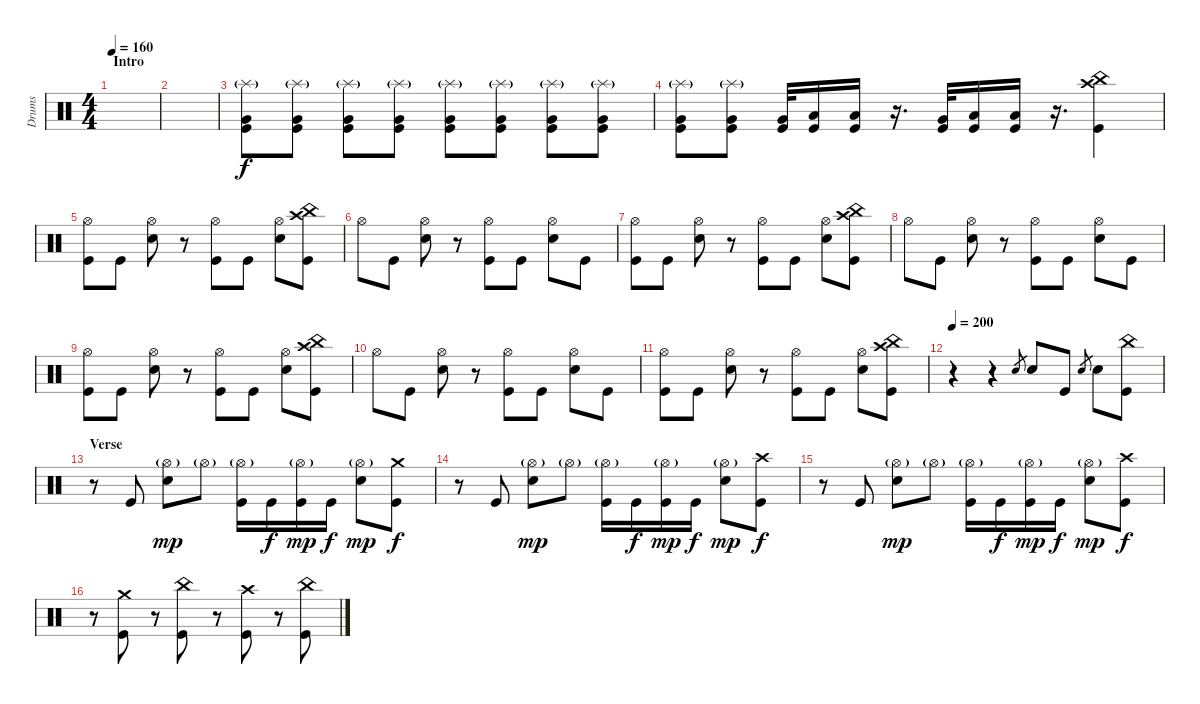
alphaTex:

\track ("Drums" "Drums") {instrument percussion}
\staff {score}
\articulation defaults
\ts (4 4)
\section ("" "Intro")
\tempo 160
\clef neutral
\ks c
|
|
("Splash (hit)"{g} "Very Low Tom (hit)" "Kick (hit)").8{volume 13} ("Splash (hit)"{g} "Very Low Tom (hit)" "Kick (hit)").8 ("Splash (hit)"{g} "Very Low Tom (hit)" "Kick (hit)").8 ("Splash (hit)"{g} "Very Low Tom (hit)" "Kick (hit)").8 ("Splash (hit)"{g} "Very Low Tom (hit)" "Kick (hit)").8 ("Splash (hit)"{g} "Very Low Tom (hit)" "Kick (hit)").8 ("Splash (hit)"{g} "Very Low Tom (hit)" "Kick (hit)").8 ("Splash (hit)"{g} "Very Low Tom (hit)" "Kick (hit)").8 |
("Splash (hit)"{g} "Very Low Tom (hit)" "Kick (hit)").8 ("Splash (hit)"{g} "Very Low Tom (hit)" "Kick (hit)").8 ("Very Low Tom (hit)" "Kick (hit)").32{dy f} ("Low Tom (hit)" "Kick (hit)").16 ("Low Floor Tom (hit)" "Kick (hit)").16 r.16{d} ("Very Low Tom (hit)" "Kick (hit)").32 ("Low Tom (hit)" "Kick (hit)").16 ("Low Floor Tom (hit)" "Kick (hit)").16 r.16{d} ("China (hit)" "Crash high (hit)" "Kick (hit)").4 |
("Hi-Hat (open)" "Kick (hit)").8 "Kick (hit)".8 ("Hi-Hat (open)" "Snare (hit) 2").8 r.8 ("Hi-Hat (open)" "Kick (hit)").8 "Kick (hit)".8 ("Hi-Hat (open)" "Snare (hit) 2").8 ("China (hit)" "Crash high (hit)" "Kick (hit)").8 |
"Hi-Hat (open)".8 "Kick (hit)".8 ("Hi-Hat (open)" "Snare (hit) 2").8 r.8 ("Hi-Hat (open)" "Kick (hit)").8 "Kick (hit)".8 ("Hi-Hat (open)" "Snare (hit) 2").8 "Kick (hit)".8 |
("Hi-Hat (open)" "Kick (hit)").8 "Kick (hit)".8 ("Hi-Hat (open)" "Snare (hit) 2").8 r.8 ("Hi-Hat (open)" "Kick (hit)").8 "Kick (hit)".8 ("Hi-Hat (open)" "Snare (hit) 2").8 ("China (hit)" "Crash high (hit)" "Kick (hit)").8 |
"Hi-Hat (open)".8 "Kick (hit)".8 ("Hi-Hat (open)" "Snare (hit) 2").8 r.8 ("Hi-Hat (open)" "Kick (hit)").8 "Kick (hit)".8 ("Hi-Hat (open)" "Snare (hit) 2").8 "Kick (hit)".8 |
("Hi-Hat (open)" "Kick (hit)").8 "Kick (hit)".8 ("Hi-Hat (open)" "Snare (hit) 2").8 r.8 ("Hi-Hat (open)" "Kick (hit)").8 "Kick (hit)".8 ("Hi-Hat (open)" "Snare (hit) 2").8 ("China (hit)" "Crash high (hit)" "Kick (hit)").8 |
"Hi-Hat (open)".8 "Kick (hit)".8 ("Hi-Hat (open)" "Snare (hit) 2").8 r.8 ("Hi-Hat (open)" "Kick (hit)").8 "Kick (hit)".8 ("Hi-Hat (open)" "Snare (hit) 2").8 "Kick (hit)".8 |
("Hi-Hat (open)" "Kick (hit)").8 "Kick (hit)".8 ("Hi-Hat (open)" "Snare (hit) 2").8 r.8 ("Hi-Hat (open)" "Kick (hit)").8 "Kick (hit)".8 ("Hi-Hat (open)" "Snare (hit) 2").8 ("China (hit)" "Crash high (hit)" "Kick (hit)").8 |
\tempo 200
r.4 r.4 "Snare (hit) 2".8{gr} "Snare (hit) 2".8 "Kick (hit)".8 "Snare (hit) 2".8{gr} "Snare (hit) 2".8 ("China (hit)" "Kick (hit)").8 |
\section ("" "Verse")
r.8 "Kick (hit)".8 ("Hi-Hat (open)"{g} "Snare (hit) 2").8{dy mp} "Hi-Hat (open)"{g}.8 ("Hi-Hat (open)"{g} "Kick (hit)").16 "Kick (hit)".16{dy f} ("Hi-Hat (open)"{g} "Kick (hit)").16{dy mp} "Kick (hit)".16{dy f} ("Hi-Hat (open)"{g} "Snare (hit) 2").8{dy mp} ("Crash medium (hit)" "Kick (hit)").8{dy f} |
r.8 "Kick (hit)".8 ("Hi-Hat (open)"{g} "Snare (hit) 2").8{dy mp} "Hi-Hat (open)"{g}.8 ("Hi-Hat (open)"{g} "Kick (hit)").16 "Kick (hit)".16{dy f} ("Hi-Hat (open)"{g} "Kick (hit)").16{dy mp} "Kick (hit)".16{dy f} ("Hi-Hat (open)"{g} "Snare (hit) 2").8{dy mp} ("Crash high (hit)" "Kick (hit)").8{dy f} |
r.8 "Kick (hit)".8 ("Hi-Hat (open)"{g} "Snare (hit) 2").8{dy mp} "Hi-Hat (open)"{g}.8 ("Hi-Hat (open)"{g} "Kick (hit)").16 "Kick (hit)".16{dy f} ("Hi-Hat (open)"{g} "Kick (hit)").16{dy mp} "Kick (hit)".16{dy f} ("Hi-Hat (open)"{g} "Snare (hit) 2").8{dy mp} ("Crash high (hit)" "Kick (hit)").8{dy f} |
r.8 ("Crash medium (hit)" "Kick (hit)").8 r.8 ("China (hit)" "Kick (hit)").8 r.8 ("Crash high (hit)" "Kick (hit)").8 r.8 ("China (hit)" "Kick (hit)").8
